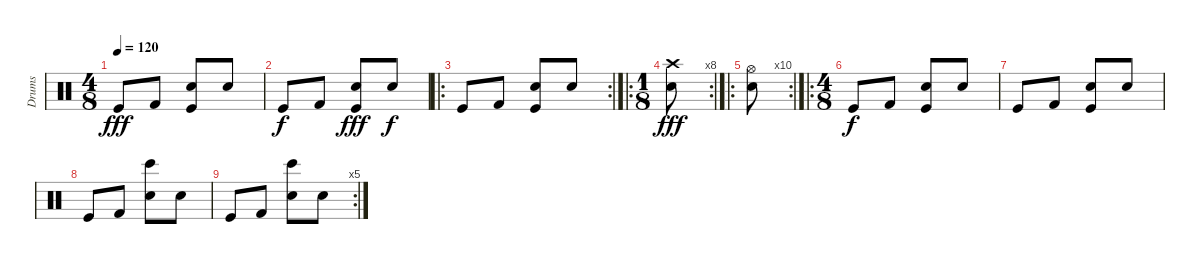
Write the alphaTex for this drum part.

\track ("Drums" "Drums") {instrument percussion}
\staff {score}
\articulation defaults
\ts (4 8)
\tempo 120
\clef neutral
\ks c "Kick (hit)".8{dy fff} "Kick (hit) 2".8
("Kick (hit)" "Electric Snare (hit)").8 "Snare (hit) 2".8 |
"Kick (hit)".8{dy f} "Kick (hit) 2".8 ("Kick (hit)" "Electric Snare (hit)").8{dy fff} "Snare (hit) 2".8{dy f} |
\ro
\rc 2 "Kick (hit)".8 "Kick (hit) 2".8
("Kick (hit)" "Electric Snare (hit)").8 "Snare (hit) 2".8 |
\ro
\rc 8
\ts (1 8)
("Snare (hit) 2" "Crash high (hit)").8{dy fff} |
\ro
\rc 10
("Snare (hit) 2" "Hi-Hat (open)").8 |
\ro
\ts (4 8)
"Kick (hit)".8{dy f} "Kick (hit) 2".8 ("Kick (hit)" "Electric Snare (hit)").8 "Snare (hit) 2".8 |
"Kick (hit)".8 "Kick (hit) 2".8 ("Kick (hit)" "Electric Snare (hit)").8 "Snare (hit) 2".8 |
"Kick (hit)".8 "Kick (hit) 2".8 ("Bongo High (hit)" "Electric Snare (hit)").8 "Snare (hit) 2".8 |
\rc 5 "Kick (hit)".8 "Kick (hit) 2".8
("Bongo High (hit)" "Electric Snare (hit)").8 "Snare (hit) 2".8
